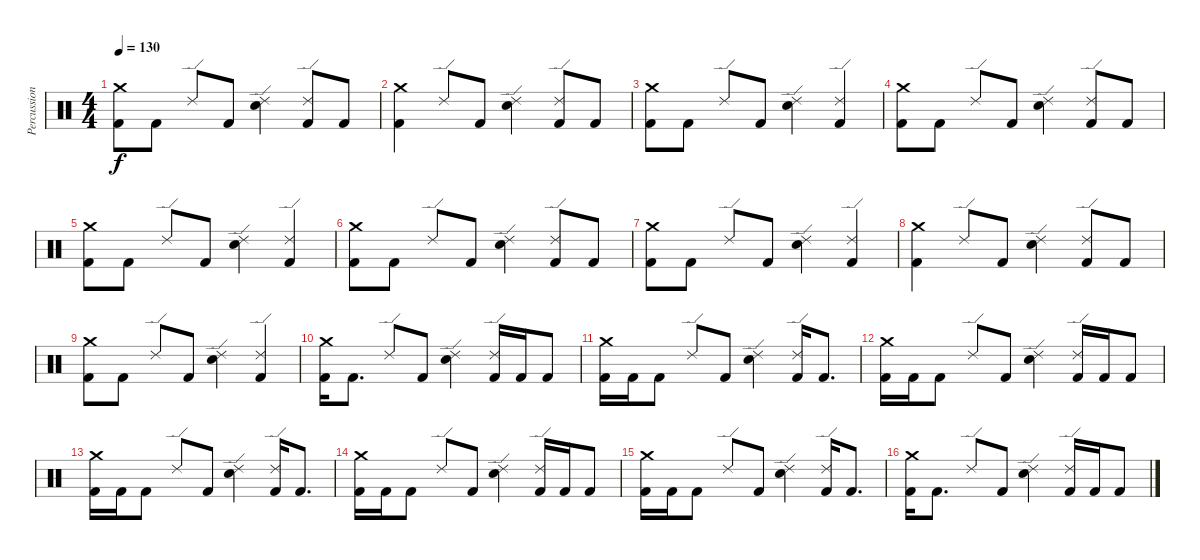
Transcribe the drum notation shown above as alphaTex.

\track ("Percussion" "Percussion") {instrument percussion}
\staff {score}
\articulation defaults
\ts (4 4)
\tempo 130
\clef neutral
\ks c
("Crash medium (hit)" "Kick (hit) 2").8{dy f} "Kick (hit) 2".8 "Ride (edge) 2".8 "Kick (hit) 2".8 ("Ride (edge) 2" "Electric Snare (hit)").4 ("Ride (edge) 2" "Kick (hit) 2").8 "Kick (hit) 2".8 |
("Crash medium (hit)" "Kick (hit) 2").4 "Ride (edge) 2".8 "Kick (hit) 2".8 ("Ride (edge) 2" "Electric Snare (hit)").4 ("Ride (edge) 2" "Kick (hit) 2").8 "Kick (hit) 2".8 |
("Crash medium (hit)" "Kick (hit) 2").8 "Kick (hit) 2".8 "Ride (edge) 2".8 "Kick (hit) 2".8 ("Ride (edge) 2" "Electric Snare (hit)").4 ("Ride (edge) 2" "Kick (hit) 2").4 |
("Crash medium (hit)" "Kick (hit) 2").8 "Kick (hit) 2".8 "Ride (edge) 2".8 "Kick (hit) 2".8 ("Ride (edge) 2" "Electric Snare (hit)").4 ("Ride (edge) 2" "Kick (hit) 2").8 "Kick (hit) 2".8 |
("Crash medium (hit)" "Kick (hit) 2").8 "Kick (hit) 2".8 "Ride (edge) 2".8 "Kick (hit) 2".8 ("Ride (edge) 2" "Electric Snare (hit)").4 ("Ride (edge) 2" "Kick (hit) 2").4 |
("Crash medium (hit)" "Kick (hit) 2").8 "Kick (hit) 2".8 "Ride (edge) 2".8 "Kick (hit) 2".8 ("Ride (edge) 2" "Electric Snare (hit)").4 ("Ride (edge) 2" "Kick (hit) 2").8 "Kick (hit) 2".8 |
("Crash medium (hit)" "Kick (hit) 2").8 "Kick (hit) 2".8 "Ride (edge) 2".8 "Kick (hit) 2".8 ("Ride (edge) 2" "Electric Snare (hit)").4 ("Ride (edge) 2" "Kick (hit) 2").4 |
("Crash medium (hit)" "Kick (hit) 2").4 "Ride (edge) 2".8 "Kick (hit) 2".8 ("Ride (edge) 2" "Electric Snare (hit)").4 ("Ride (edge) 2" "Kick (hit) 2").8 "Kick (hit) 2".8 |
("Crash medium (hit)" "Kick (hit) 2").8 "Kick (hit) 2".8 "Ride (edge) 2".8 "Kick (hit) 2".8 ("Ride (edge) 2" "Electric Snare (hit)").4 ("Ride (edge) 2" "Kick (hit) 2").4 |
("Crash medium (hit)" "Kick (hit) 2").16 "Kick (hit) 2".8{d} "Ride (edge) 2".8 "Kick (hit) 2".8 ("Ride (edge) 2" "Electric Snare (hit)").4 ("Ride (edge) 2" "Kick (hit) 2").16 "Kick (hit) 2".16 "Kick (hit) 2".8 |
("Crash medium (hit)" "Kick (hit) 2").16 "Kick (hit) 2".16 "Kick (hit) 2".8 "Ride (edge) 2".8 "Kick (hit) 2".8 ("Ride (edge) 2" "Electric Snare (hit)").4 ("Ride (edge) 2" "Kick (hit) 2").16 "Kick (hit) 2".8{d} |
("Crash medium (hit)" "Kick (hit) 2").16 "Kick (hit) 2".16 "Kick (hit) 2".8 "Ride (edge) 2".8 "Kick (hit) 2".8 ("Ride (edge) 2" "Electric Snare (hit)").4 ("Ride (edge) 2" "Kick (hit) 2").16 "Kick (hit) 2".16 "Kick (hit) 2".8 |
("Crash medium (hit)" "Kick (hit) 2").16 "Kick (hit) 2".16 "Kick (hit) 2".8 "Ride (edge) 2".8 "Kick (hit) 2".8 ("Ride (edge) 2" "Electric Snare (hit)").4 ("Ride (edge) 2" "Kick (hit) 2").16 "Kick (hit) 2".8{d} |
("Crash medium (hit)" "Kick (hit) 2").16 "Kick (hit) 2".16 "Kick (hit) 2".8 "Ride (edge) 2".8 "Kick (hit) 2".8 ("Ride (edge) 2" "Electric Snare (hit)").4 ("Ride (edge) 2" "Kick (hit) 2").16 "Kick (hit) 2".16 "Kick (hit) 2".8 |
("Crash medium (hit)" "Kick (hit) 2").16 "Kick (hit) 2".16 "Kick (hit) 2".8 "Ride (edge) 2".8 "Kick (hit) 2".8 ("Ride (edge) 2" "Electric Snare (hit)").4 ("Ride (edge) 2" "Kick (hit) 2").16 "Kick (hit) 2".8{d} |
("Crash medium (hit)" "Kick (hit) 2").16 "Kick (hit) 2".8{d} "Ride (edge) 2".8 "Kick (hit) 2".8 ("Ride (edge) 2" "Electric Snare (hit)").4 ("Ride (edge) 2" "Kick (hit) 2").16 "Kick (hit) 2".16 "Kick (hit) 2".8
